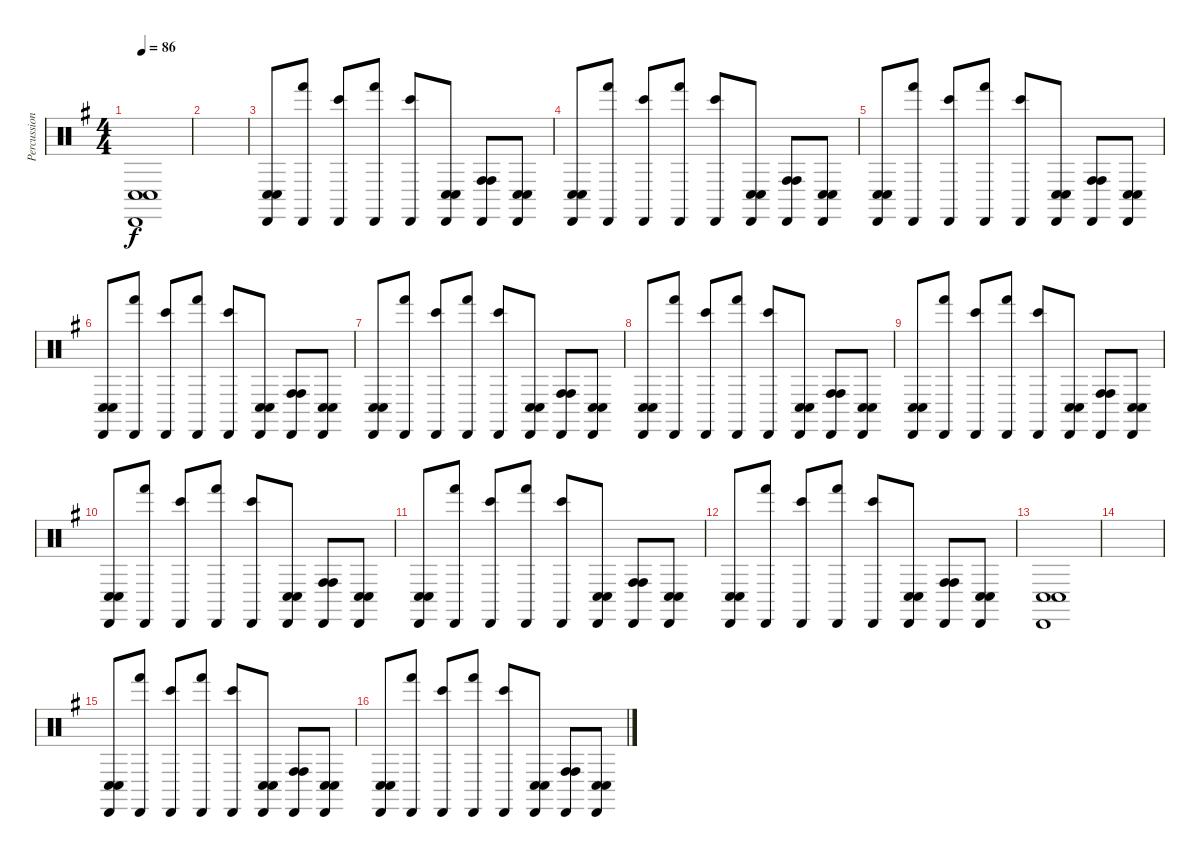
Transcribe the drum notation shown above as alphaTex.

\track ("Percussion" "Percussion") {instrument percussion}
\staff {score}
\articulation defaults
\ts (4 4)
\tempo 86
\clef neutral
\ks g
("Cabasa (hit)" "Conga low (hit)" "Conga low (hit)").1{dy f} |
|
("Cabasa (hit)" "Conga low (hit)" "Conga low (hit)").8 ("Cabasa (hit)" "Hand (hit)").8 ("Cabasa (hit)" "Bongo High (hit)").8 ("Cabasa (hit)" "Hand (hit)").8 ("Cabasa (hit)" "Bongo High (hit)").8 ("Cabasa (hit)" "Conga low (hit)" "Conga low (hit)").8 ("Cabasa (hit)" "Conga high (hit)" "Conga high (hit)").8 ("Cabasa (hit)" "Conga low (hit)" "Conga low (hit)").8 |
("Cabasa (hit)" "Conga low (hit)" "Conga low (hit)").8 ("Cabasa (hit)" "Hand (hit)").8 ("Cabasa (hit)" "Bongo High (hit)").8 ("Cabasa (hit)" "Hand (hit)").8 ("Cabasa (hit)" "Bongo High (hit)").8 ("Cabasa (hit)" "Conga low (hit)" "Conga low (hit)").8 ("Cabasa (hit)" "Conga high (hit)" "Conga high (hit)").8 ("Cabasa (hit)" "Conga low (hit)" "Conga low (hit)").8 |
("Cabasa (hit)" "Conga low (hit)" "Conga low (hit)").8 ("Cabasa (hit)" "Hand (hit)").8 ("Cabasa (hit)" "Bongo High (hit)").8 ("Cabasa (hit)" "Hand (hit)").8 ("Cabasa (hit)" "Bongo High (hit)").8 ("Cabasa (hit)" "Conga low (hit)" "Conga low (hit)").8 ("Cabasa (hit)" "Conga high (hit)" "Conga high (hit)").8 ("Cabasa (hit)" "Conga low (hit)" "Conga low (hit)").8 |
("Cabasa (hit)" "Conga low (hit)" "Conga low (hit)").8 ("Cabasa (hit)" "Hand (hit)").8 ("Cabasa (hit)" "Bongo High (hit)").8 ("Cabasa (hit)" "Hand (hit)").8 ("Cabasa (hit)" "Bongo High (hit)").8 ("Cabasa (hit)" "Conga low (hit)" "Conga low (hit)").8 ("Cabasa (hit)" "Conga high (hit)" "Conga high (hit)").8 ("Cabasa (hit)" "Conga low (hit)" "Conga low (hit)").8 |
("Cabasa (hit)" "Conga low (hit)" "Conga low (hit)").8 ("Cabasa (hit)" "Hand (hit)").8 ("Cabasa (hit)" "Bongo High (hit)").8 ("Cabasa (hit)" "Hand (hit)").8 ("Cabasa (hit)" "Bongo High (hit)").8 ("Cabasa (hit)" "Conga low (hit)" "Conga low (hit)").8 ("Cabasa (hit)" "Conga high (hit)" "Conga high (hit)").8 ("Cabasa (hit)" "Conga low (hit)" "Conga low (hit)").8 |
("Cabasa (hit)" "Conga low (hit)" "Conga low (hit)").8 ("Cabasa (hit)" "Hand (hit)").8 ("Cabasa (hit)" "Bongo High (hit)").8 ("Cabasa (hit)" "Hand (hit)").8 ("Cabasa (hit)" "Bongo High (hit)").8 ("Cabasa (hit)" "Conga low (hit)" "Conga low (hit)").8 ("Cabasa (hit)" "Conga high (hit)" "Conga high (hit)").8 ("Cabasa (hit)" "Conga low (hit)" "Conga low (hit)").8 |
("Cabasa (hit)" "Conga low (hit)" "Conga low (hit)").8 ("Cabasa (hit)" "Hand (hit)").8 ("Cabasa (hit)" "Bongo High (hit)").8 ("Cabasa (hit)" "Hand (hit)").8 ("Cabasa (hit)" "Bongo High (hit)").8 ("Cabasa (hit)" "Conga low (hit)" "Conga low (hit)").8 ("Cabasa (hit)" "Conga high (hit)" "Conga high (hit)").8 ("Cabasa (hit)" "Conga low (hit)" "Conga low (hit)").8 |
("Cabasa (hit)" "Conga low (hit)" "Conga low (hit)").8 ("Cabasa (hit)" "Hand (hit)").8 ("Cabasa (hit)" "Bongo High (hit)").8 ("Cabasa (hit)" "Hand (hit)").8 ("Cabasa (hit)" "Bongo High (hit)").8 ("Cabasa (hit)" "Conga low (hit)" "Conga low (hit)").8 ("Cabasa (hit)" "Conga high (hit)" "Conga high (hit)").8 ("Cabasa (hit)" "Conga low (hit)" "Conga low (hit)").8 |
("Cabasa (hit)" "Conga low (hit)" "Conga low (hit)").8 ("Cabasa (hit)" "Hand (hit)").8 ("Cabasa (hit)" "Bongo High (hit)").8 ("Cabasa (hit)" "Hand (hit)").8 ("Cabasa (hit)" "Bongo High (hit)").8 ("Cabasa (hit)" "Conga low (hit)" "Conga low (hit)").8 ("Cabasa (hit)" "Conga high (hit)" "Conga high (hit)").8 ("Cabasa (hit)" "Conga low (hit)" "Conga low (hit)").8 |
("Cabasa (hit)" "Conga low (hit)" "Conga low (hit)").8 ("Cabasa (hit)" "Hand (hit)").8 ("Cabasa (hit)" "Bongo High (hit)").8 ("Cabasa (hit)" "Hand (hit)").8 ("Cabasa (hit)" "Bongo High (hit)").8 ("Cabasa (hit)" "Conga low (hit)" "Conga low (hit)").8 ("Cabasa (hit)" "Conga high (hit)" "Conga high (hit)").8 ("Cabasa (hit)" "Conga low (hit)" "Conga low (hit)").8 |
("Cabasa (hit)" "Conga low (hit)" "Conga low (hit)").1 |
|
("Cabasa (hit)" "Conga low (hit)" "Conga low (hit)").8 ("Cabasa (hit)" "Hand (hit)").8 ("Cabasa (hit)" "Bongo High (hit)").8 ("Cabasa (hit)" "Hand (hit)").8 ("Cabasa (hit)" "Bongo High (hit)").8 ("Cabasa (hit)" "Conga low (hit)" "Conga low (hit)").8 ("Cabasa (hit)" "Conga high (hit)" "Conga high (hit)").8 ("Cabasa (hit)" "Conga low (hit)" "Conga low (hit)").8 |
("Cabasa (hit)" "Conga low (hit)" "Conga low (hit)").8 ("Cabasa (hit)" "Hand (hit)").8 ("Cabasa (hit)" "Bongo High (hit)").8 ("Cabasa (hit)" "Hand (hit)").8 ("Cabasa (hit)" "Bongo High (hit)").8 ("Cabasa (hit)" "Conga low (hit)" "Conga low (hit)").8 ("Cabasa (hit)" "Conga high (hit)" "Conga high (hit)").8 ("Cabasa (hit)" "Conga low (hit)" "Conga low (hit)").8
